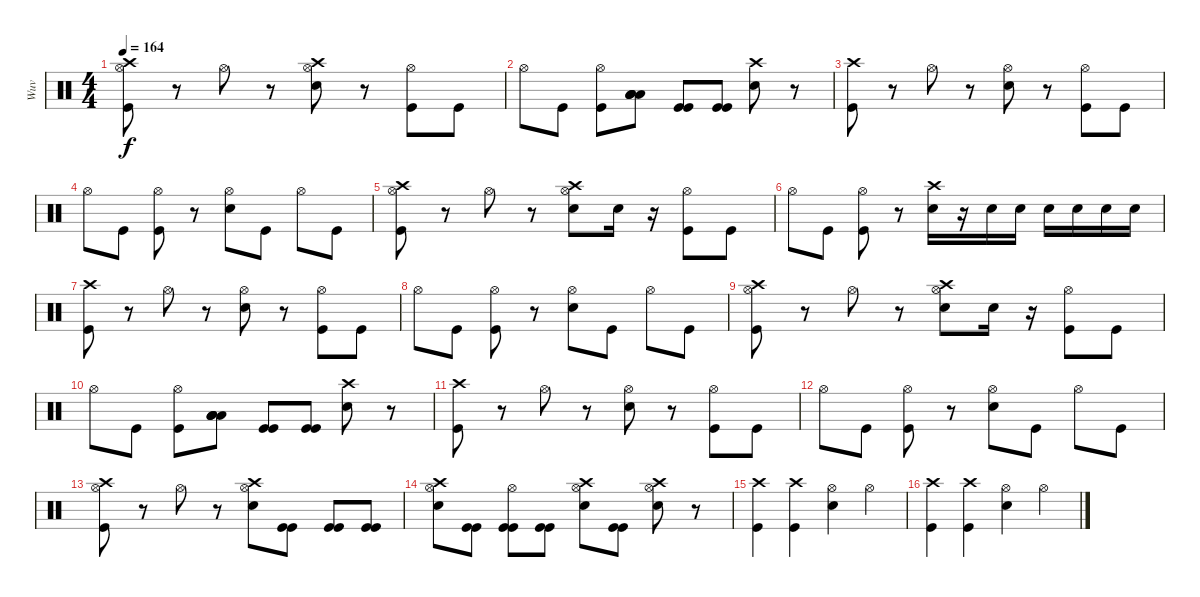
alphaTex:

\track ("Wuv" "Wuv") {instrument percussion}
\staff {score}
\articulation defaults
\ts (4 4)
\tempo 164
\clef neutral
\ks c
("Hi-Hat (open)" "Crash high (hit)" "Kick (hit)").8{dy f} r.8 "Hi-Hat (open)".8 r.8 ("Hi-Hat (open)" "Crash high (hit)" "Snare (hit) 2").8 r.8 ("Hi-Hat (open)" "Kick (hit)").8 "Kick (hit)".8 |
"Hi-Hat (open)".8 "Kick (hit)".8 ("Hi-Hat (open)" "Kick (hit)").8 ("Low Floor Tom (hit)" "Low Floor Tom (hit)" "Low Floor Tom (hit)" "Low Floor Tom (hit)").8 ("Kick (hit)" "Kick (hit)").8 ("Kick (hit)" "Kick (hit)").8 ("Crash high (hit)" "Snare (hit) 2").8 r.8 |
("Crash high (hit)" "Kick (hit)").8 r.8 "Hi-Hat (open)".8 r.8 ("Hi-Hat (open)" "Snare (hit) 2").8 r.8 ("Hi-Hat (open)" "Kick (hit)").8 "Kick (hit)".8 |
"Hi-Hat (open)".8 "Kick (hit)".8 ("Hi-Hat (open)" "Kick (hit)").8 r.8 ("Hi-Hat (open)" "Snare (hit) 2").8 "Kick (hit)".8 "Hi-Hat (open)".8 "Kick (hit)".8 |
("Hi-Hat (open)" "Crash high (hit)" "Kick (hit)").8 r.8 "Hi-Hat (open)".8 r.8 ("Hi-Hat (open)" "Crash high (hit)" "Snare (hit) 2").8 "Snare (hit) 2".16 r.16 ("Hi-Hat (open)" "Kick (hit)").8 "Kick (hit)".8 |
"Hi-Hat (open)".8 "Kick (hit)".8 ("Hi-Hat (open)" "Kick (hit)").8 r.8 ("Crash high (hit)" "Snare (hit) 2").16 r.16 "Snare (hit) 2".16 "Snare (hit) 2".16 "Snare (hit) 2".16 "Snare (hit) 2".16 "Snare (hit) 2".16 "Snare (hit) 2".16 |
("Crash high (hit)" "Kick (hit)").8 r.8 "Hi-Hat (open)".8 r.8 ("Hi-Hat (open)" "Snare (hit) 2").8 r.8 ("Hi-Hat (open)" "Kick (hit)").8 "Kick (hit)".8 |
"Hi-Hat (open)".8 "Kick (hit)".8 ("Hi-Hat (open)" "Kick (hit)").8 r.8 ("Hi-Hat (open)" "Snare (hit) 2").8 "Kick (hit)".8 "Hi-Hat (open)".8 "Kick (hit)".8 |
("Hi-Hat (open)" "Crash high (hit)" "Kick (hit)").8 r.8 "Hi-Hat (open)".8 r.8 ("Hi-Hat (open)" "Crash high (hit)" "Snare (hit) 2").8 "Snare (hit) 2".16 r.16 ("Hi-Hat (open)" "Kick (hit)").8 "Kick (hit)".8 |
"Hi-Hat (open)".8 "Kick (hit)".8 ("Hi-Hat (open)" "Kick (hit)").8 ("Low Floor Tom (hit)" "Low Floor Tom (hit)" "Low Floor Tom (hit)" "Low Floor Tom (hit)").8 ("Kick (hit)" "Kick (hit)").8 ("Kick (hit)" "Kick (hit)").8 ("Crash high (hit)" "Snare (hit) 2").8 r.8 |
("Crash high (hit)" "Kick (hit)").8 r.8 "Hi-Hat (open)".8 r.8 ("Hi-Hat (open)" "Snare (hit) 2").8 r.8 ("Hi-Hat (open)" "Kick (hit)").8 "Kick (hit)".8 |
"Hi-Hat (open)".8 "Kick (hit)".8 ("Hi-Hat (open)" "Kick (hit)").8 r.8 ("Hi-Hat (open)" "Snare (hit) 2").8 "Kick (hit)".8 "Hi-Hat (open)".8 "Kick (hit)".8 |
("Hi-Hat (open)" "Crash high (hit)" "Kick (hit)").8 r.8 "Hi-Hat (open)".8 r.8 ("Hi-Hat (open)" "Crash high (hit)" "Snare (hit) 2").8 ("Kick (hit)" "Kick (hit)").8 ("Kick (hit)" "Kick (hit)").8 ("Kick (hit)" "Kick (hit)").8 |
("Hi-Hat (open)" "Crash high (hit)" "Snare (hit) 2").8 ("Kick (hit)" "Kick (hit)").8 ("Hi-Hat (open)" "Kick (hit)" "Kick (hit)").8 ("Kick (hit)" "Kick (hit)").8 ("Hi-Hat (open)" "Crash high (hit)" "Snare (hit) 2").8 ("Kick (hit)" "Kick (hit)").8 ("Hi-Hat (open)" "Crash high (hit)" "Snare (hit) 2").8 r.8 |
("Crash high (hit)" "Kick (hit)").4 ("Crash high (hit)" "Kick (hit)").4 ("Hi-Hat (open)" "Snare (hit) 2").4 "Hi-Hat (open)".4 |
("Crash high (hit)" "Kick (hit)").4 ("Crash high (hit)" "Kick (hit)").4 ("Hi-Hat (open)" "Snare (hit) 2").4 "Hi-Hat (open)".4
